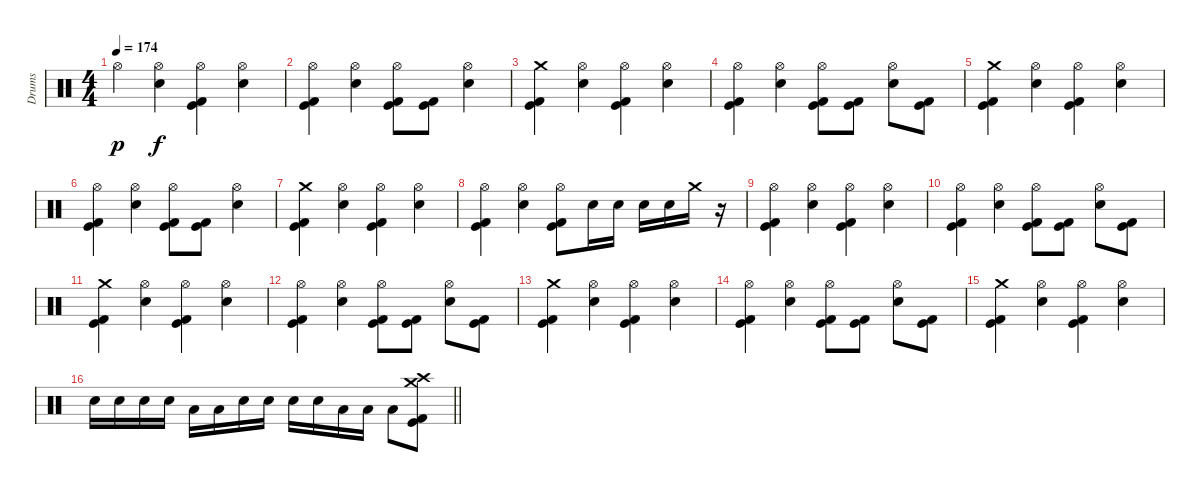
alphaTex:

\track ("Drums" "Drums") {instrument percussion}
\staff {score}
\articulation defaults
\ts (4 4)
\tempo 174
\clef neutral
\ks c "Hi-Hat (open)".4{dy p}
("Hi-Hat (open)" "Electric Snare (hit)").4{dy f} ("Hi-Hat (open)" "Kick (hit) 2" "Kick (hit)").4 ("Hi-Hat (open)" "Electric Snare (hit)").4 |
("Hi-Hat (open)" "Kick (hit) 2" "Kick (hit)").4 ("Hi-Hat (open)" "Electric Snare (hit)").4 ("Hi-Hat (open)" "Kick (hit) 2" "Kick (hit)").8 ("Kick (hit) 2" "Kick (hit)").8 ("Hi-Hat (open)" "Electric Snare (hit)").4 |
("Crash medium (hit)" "Kick (hit) 2" "Kick (hit)").4 ("Hi-Hat (open)" "Electric Snare (hit)").4 ("Hi-Hat (open)" "Kick (hit) 2" "Kick (hit)").4 ("Hi-Hat (open)" "Electric Snare (hit)").4 |
("Hi-Hat (open)" "Kick (hit) 2" "Kick (hit)").4 ("Hi-Hat (open)" "Electric Snare (hit)").4 ("Hi-Hat (open)" "Kick (hit) 2" "Kick (hit)").8 ("Kick (hit) 2" "Kick (hit)").8 ("Hi-Hat (open)" "Electric Snare (hit)").8 ("Kick (hit) 2" "Kick (hit)").8 |
("Crash medium (hit)" "Kick (hit) 2" "Kick (hit)").4 ("Hi-Hat (open)" "Electric Snare (hit)").4 ("Hi-Hat (open)" "Kick (hit) 2" "Kick (hit)").4 ("Hi-Hat (open)" "Electric Snare (hit)").4 |
("Hi-Hat (open)" "Kick (hit) 2" "Kick (hit)").4 ("Hi-Hat (open)" "Electric Snare (hit)").4 ("Hi-Hat (open)" "Kick (hit) 2" "Kick (hit)").8 ("Kick (hit) 2" "Kick (hit)").8 ("Hi-Hat (open)" "Electric Snare (hit)").4 |
("Crash medium (hit)" "Kick (hit) 2" "Kick (hit)").4 ("Hi-Hat (open)" "Electric Snare (hit)").4 ("Hi-Hat (open)" "Kick (hit) 2" "Kick (hit)").4 ("Hi-Hat (open)" "Electric Snare (hit)").4 |
("Hi-Hat (open)" "Kick (hit) 2" "Kick (hit)").4 ("Hi-Hat (open)" "Electric Snare (hit)").4 ("Hi-Hat (open)" "Kick (hit) 2" "Kick (hit)").8 "Electric Snare (hit)".16 "Electric Snare (hit)".16 "Electric Snare (hit)".16 "Electric Snare (hit)".16 "Crash medium (hit)".16 r.16 |
("Hi-Hat (open)" "Kick (hit) 2" "Kick (hit)").4 ("Hi-Hat (open)" "Electric Snare (hit)").4 ("Hi-Hat (open)" "Kick (hit) 2" "Kick (hit)").4 ("Hi-Hat (open)" "Electric Snare (hit)").4 |
("Hi-Hat (open)" "Kick (hit) 2" "Kick (hit)").4 ("Hi-Hat (open)" "Electric Snare (hit)").4 ("Hi-Hat (open)" "Kick (hit) 2" "Kick (hit)").8 ("Kick (hit) 2" "Kick (hit)").8 ("Hi-Hat (open)" "Electric Snare (hit)").8 ("Kick (hit) 2" "Kick (hit)").8 |
("Crash medium (hit)" "Kick (hit) 2" "Kick (hit)").4 ("Hi-Hat (open)" "Electric Snare (hit)").4 ("Hi-Hat (open)" "Kick (hit) 2" "Kick (hit)").4 ("Hi-Hat (open)" "Electric Snare (hit)").4 |
("Hi-Hat (open)" "Kick (hit) 2" "Kick (hit)").4 ("Hi-Hat (open)" "Electric Snare (hit)").4 ("Hi-Hat (open)" "Kick (hit) 2" "Kick (hit)").8 ("Kick (hit) 2" "Kick (hit)").8 ("Hi-Hat (open)" "Electric Snare (hit)").8 ("Kick (hit) 2" "Kick (hit)").8 |
("Crash medium (hit)" "Kick (hit) 2" "Kick (hit)").4 ("Hi-Hat (open)" "Electric Snare (hit)").4 ("Hi-Hat (open)" "Kick (hit) 2" "Kick (hit)").4 ("Hi-Hat (open)" "Electric Snare (hit)").4 |
("Hi-Hat (open)" "Kick (hit) 2" "Kick (hit)").4 ("Hi-Hat (open)" "Electric Snare (hit)").4 ("Hi-Hat (open)" "Kick (hit) 2" "Kick (hit)").8 ("Kick (hit) 2" "Kick (hit)").8 ("Hi-Hat (open)" "Electric Snare (hit)").8 ("Kick (hit) 2" "Kick (hit)").8 |
("Crash medium (hit)" "Kick (hit) 2" "Kick (hit)").4 ("Hi-Hat (open)" "Electric Snare (hit)").4 ("Hi-Hat (open)" "Kick (hit) 2" "Kick (hit)").4 ("Hi-Hat (open)" "Electric Snare (hit)").4 |
\barLineRight lightlight "Electric Snare (hit)".16 "Electric Snare (hit)".16 "Electric Snare (hit)".16 "Electric Snare (hit)".16 "Low Floor Tom (hit)".16 "Low Floor Tom (hit)".16 "Electric Snare (hit)".16 "Electric Snare (hit)".16 "Electric Snare (hit)".16 "Electric Snare (hit)".16 "Low Floor Tom (hit)".16 "Low Floor Tom (hit)".16 "Low Floor Tom (hit)".8
("Crash medium (hit)" "Crash high (hit)" "Kick (hit) 2" "Kick (hit)").8
